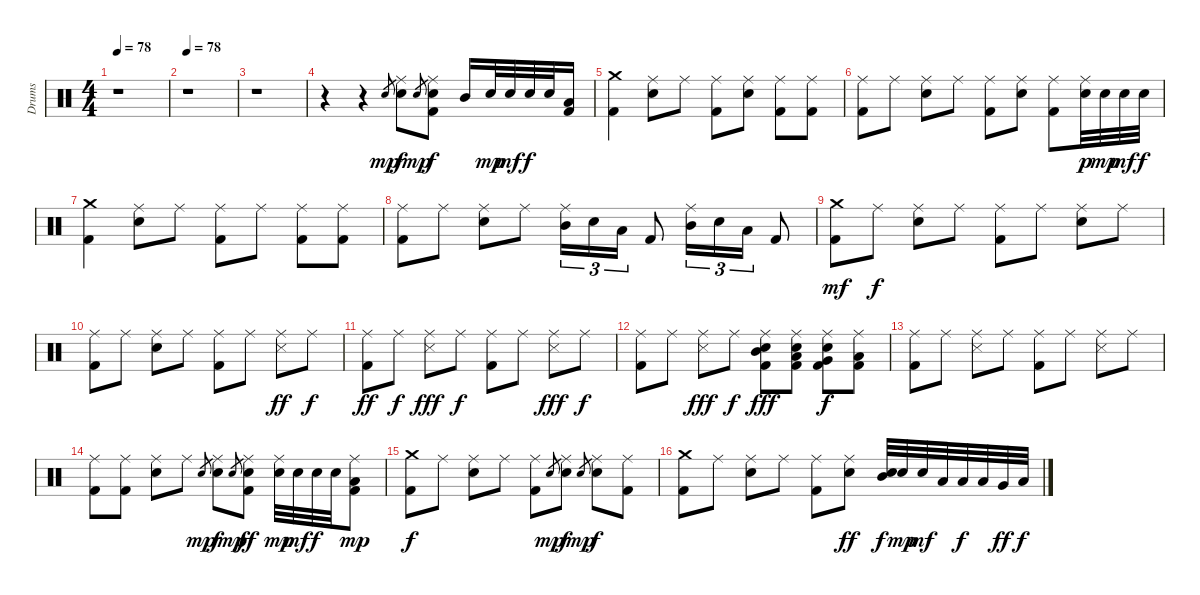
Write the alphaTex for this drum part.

\track ("Drums" "Drums") {instrument percussion}
\staff {score}
\articulation defaults
\ts (4 4)
\tempo 78
\tempo 75
\tempo 78
\clef neutral
\ks c
r.1{dy mp} |
\tempo 78
r.1 |
r.1 |
r.4 r.4 "Electric Snare (hit)".8{gr} ("Ride (middle)" "Electric Snare (hit)").8{dy f volume 12} "Electric Snare (hit)".8{gr dy mp} ("Ride (middle)" "Electric Snare (hit)" "Kick (hit) 2").8{dy f} "Mid Tom (hit)".16 "Electric Snare (hit)".32{dy mp} "Electric Snare (hit)".32{dy mf} "Electric Snare (hit)".32{dy f} "Electric Snare (hit)".32 ("Low Tom (hit)" "Kick (hit) 2").16 |
("Crash medium (hit)" "Kick (hit) 2").4 ("Ride (middle)" "Electric Snare (hit)").8 "Ride (middle)".8 ("Ride (middle)" "Kick (hit) 2").8 ("Ride (middle)" "Electric Snare (hit)").8 ("Ride (middle)" "Kick (hit) 2").8 ("Ride (middle)" "Kick (hit) 2").8 |
("Ride (middle)" "Kick (hit) 2").8 "Ride (middle)".8 ("Ride (middle)" "Electric Snare (hit)").8 "Ride (middle)".8 ("Ride (middle)" "Kick (hit) 2").8 ("Ride (middle)" "Electric Snare (hit)").8 ("Ride (middle)" "Kick (hit) 2").8 ("Ride (middle)" "Electric Snare (hit)").32{dy p} "Electric Snare (hit)".32{dy mp} "Electric Snare (hit)".32{dy mf} "Electric Snare (hit)".32{dy f} |
("Crash medium (hit)" "Kick (hit) 2").4 ("Ride (middle)" "Electric Snare (hit)").8 "Ride (middle)".8 ("Ride (middle)" "Kick (hit) 2").8 "Ride (middle)".8 ("Ride (middle)" "Kick (hit) 2").8 ("Ride (middle)" "Kick (hit) 2").8 |
("Ride (middle)" "Kick (hit) 2").8 "Ride (middle)".8 ("Ride (middle)" "Electric Snare (hit)").8 "Ride (middle)".8 ("Ride (middle)" "Mid Tom (hit)").16{tu (3 2)} "Electric Snare (hit)".16{tu (3 2)} "Low Tom (hit)".16{tu (3 2)} "Kick (hit) 2".8 ("Ride (middle)" "Mid Tom (hit)").16{tu (3 2)} "Electric Snare (hit)".16{tu (3 2)} "Low Tom (hit)".16{tu (3 2)} "Kick (hit) 2".8 |
("Crash medium (hit)" "Kick (hit) 2").8{dy mf volume 8} "Ride (middle)".8{dy f} ("Ride (middle)" "Electric Snare (hit)").8 "Ride (middle)".8 ("Ride (middle)" "Kick (hit) 2").8 "Ride (middle)".8 ("Ride (middle)" "Electric Snare (hit)").8 "Ride (middle)".8 |
("Ride (middle)" "Kick (hit) 2").8 "Ride (middle)".8 ("Ride (middle)" "Electric Snare (hit)").8 "Ride (middle)".8 ("Ride (middle)" "Kick (hit) 2").8 "Ride (middle)".8 ("Ride (middle)" "Metronome (hit)").8{dy ff} "Ride (middle)".8{dy f} |
("Ride (middle)" "Kick (hit) 2").8{dy ff} "Ride (middle)".8{dy f} ("Ride (middle)" "Metronome (hit)").8{dy fff} "Ride (middle)".8{dy f} ("Ride (middle)" "Kick (hit) 2").8 "Ride (middle)".8 ("Ride (middle)" "Metronome (hit)").8{dy fff} "Ride (middle)".8{dy f} |
("Ride (middle)" "Kick (hit) 2").8 "Ride (middle)".8 ("Ride (middle)" "Metronome (hit)").8{dy fff} "Ride (middle)".8{dy f} ("Ride (middle)" "Mid Tom (hit)" "Electric Snare (hit)" "Kick (hit) 2").8{dy fff} ("Ride (middle)" "Low Tom (hit)" "Electric Snare (hit)" "Kick (hit) 2").8 ("Ride (middle)" "Very Low Tom (hit)" "Electric Snare (hit)" "Kick (hit) 2").8{dy f} ("Ride (middle)" "Low Floor Tom (hit)" "Kick (hit) 2").8 |
("Ride (middle)" "Kick (hit) 2").8 "Ride (middle)".8 ("Ride (middle)" "Metronome (hit)").8 "Ride (middle)".8 ("Ride (middle)" "Kick (hit) 2").8{volume 12} "Ride (middle)".8 ("Ride (middle)" "Metronome (hit)").8 "Ride (middle)".8 |
("Ride (middle)" "Kick (hit) 2").8 ("Ride (middle)" "Kick (hit) 2").8 ("Ride (middle)" "Electric Snare (hit)").8 "Ride (middle)".8 "Electric Snare (hit)".8{gr dy mp} ("Ride (middle)" "Electric Snare (hit)").8{dy f} "Electric Snare (hit)".8{gr dy mp} ("Ride (middle)" "Electric Snare (hit)" "Kick (hit) 2").8{dy ff} ("Ride (middle)" "Electric Snare (hit)").32{dy mp} "Electric Snare (hit)".32{dy mf} "Electric Snare (hit)".32{dy f} "Electric Snare (hit)".32 ("Ride (middle)" "Low Tom (hit)" "Kick (hit) 2").8{dy mp} |
("Crash medium (hit)" "Kick (hit) 2").8{dy f volume 10} "Ride (middle)".8 ("Ride (middle)" "Electric Snare (hit)").8 "Ride (middle)".8 ("Ride (middle)" "Kick (hit) 2").8 "Electric Snare (hit)".8{gr dy mp} ("Ride (middle)" "Electric Snare (hit)").8{dy f} "Electric Snare (hit)".8{gr dy mp} ("Ride (middle)" "Electric Snare (hit)").8{dy f} ("Ride (middle)" "Kick (hit) 2").8 |
("Crash medium (hit)" "Kick (hit) 2").8 "Ride (middle)".8 ("Ride (middle)" "Electric Snare (hit)").8 "Ride (middle)".8 ("Ride (middle)" "Kick (hit) 2").8 ("Ride (middle)" "Electric Snare (hit)").8{dy ff} ("Mid Tom (hit)" "Electric Snare (hit)").32{dy f} "Electric Snare (hit)".32{dy mp} "Electric Snare (hit)".32{dy mf} "Low Tom (hit)".32 "Low Tom (hit)".32{dy f} "Low Tom (hit)".32 "Very Low Tom (hit)".32{dy ff} "Low Floor Tom (hit)".32{dy f}
